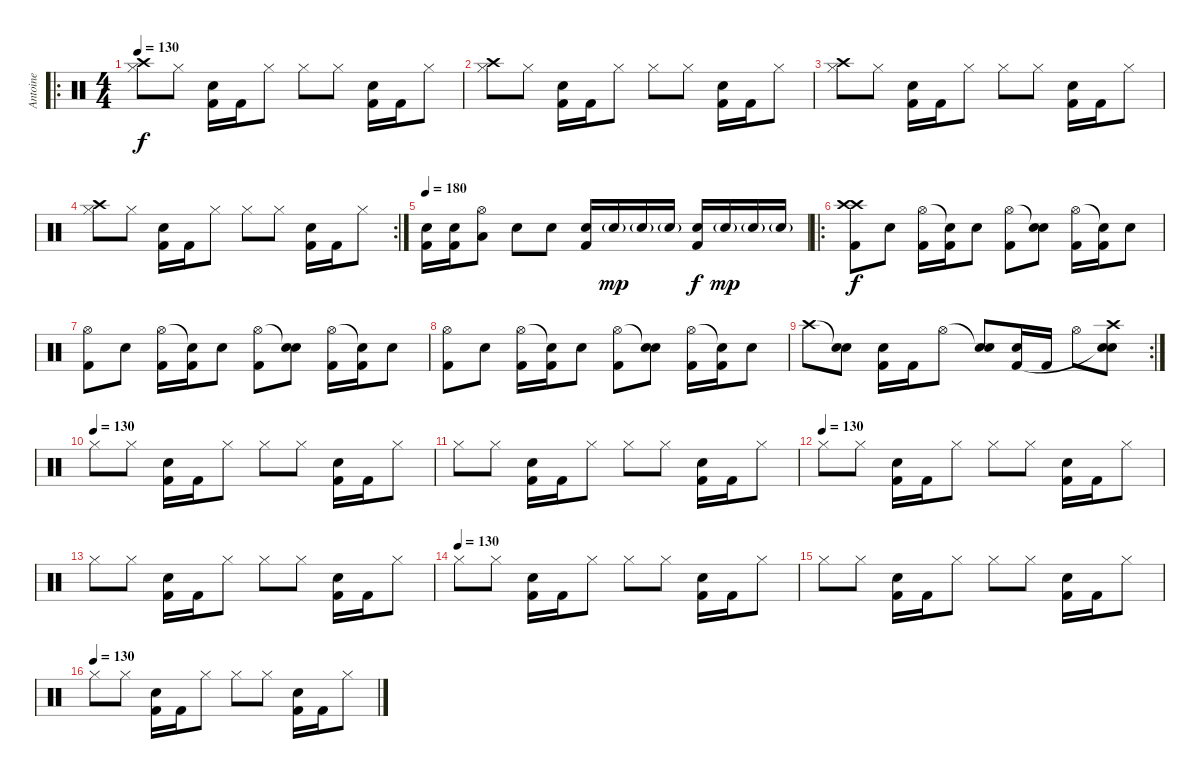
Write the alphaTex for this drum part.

\track ("Antoine" "Antoine") {instrument percussion}
\staff {score}
\articulation defaults
\ro
\ts (4 4)
\tempo 130
\clef neutral
\ks c
("Crash high (hit)" "Hi-Hat (closed)").8{dy f} "Hi-Hat (closed)".8 ("Electric Snare (hit)" "Kick (hit) 2").16 "Kick (hit) 2".16 "Hi-Hat (closed)".8 "Hi-Hat (closed)".8 "Hi-Hat (closed)".8 ("Electric Snare (hit)" "Kick (hit) 2").16 "Kick (hit) 2".16 "Hi-Hat (closed)".8 |
("Crash high (hit)" "Hi-Hat (closed)").8 "Hi-Hat (closed)".8 ("Electric Snare (hit)" "Kick (hit) 2").16 "Kick (hit) 2".16 "Hi-Hat (closed)".8 "Hi-Hat (closed)".8 "Hi-Hat (closed)".8 ("Electric Snare (hit)" "Kick (hit) 2").16 "Kick (hit) 2".16 "Hi-Hat (closed)".8 |
("Crash high (hit)" "Hi-Hat (closed)").8 "Hi-Hat (closed)".8 ("Electric Snare (hit)" "Kick (hit) 2").16 "Kick (hit) 2".16 "Hi-Hat (closed)".8 "Hi-Hat (closed)".8 "Hi-Hat (closed)".8 ("Electric Snare (hit)" "Kick (hit) 2").16 "Kick (hit) 2".16 "Hi-Hat (closed)".8 |
\rc 2
("Crash high (hit)" "Hi-Hat (closed)").8 "Hi-Hat (closed)".8 ("Electric Snare (hit)" "Kick (hit) 2").16 "Kick (hit) 2".16 "Hi-Hat (closed)".8 "Hi-Hat (closed)".8 "Hi-Hat (closed)".8 ("Electric Snare (hit)" "Kick (hit) 2").16 "Kick (hit) 2".16 "Hi-Hat (closed)".8 |
\tempo 180
("Electric Snare (hit)" "Kick (hit) 2").16 ("Electric Snare (hit)" "Kick (hit) 2").16 ("Hi-Hat (open)" "Low Tom (hit)").8 "Electric Snare (hit)".8 "Electric Snare (hit)".8 ("Electric Snare (hit)" "Kick (hit) 2").16 "Electric Snare (hit)"{g}.16{dy mp} "Electric Snare (hit)"{g}.16 "Electric Snare (hit)"{g}.16 ("Electric Snare (hit)" "Kick (hit) 2").16{dy f} "Electric Snare (hit)"{g}.16{dy mp} "Electric Snare (hit)"{g}.16 "Electric Snare (hit)"{g}.16 |
\ro
("Crash high (hit)" "Crash high (hit)" "Kick (hit) 2").8{dy f} "Electric Snare (hit)".8 ("Hi-Hat (open)" "Kick (hit) 2").16 ("Snare (hit)"{t} "Kick (hit) 2").16 "Electric Snare (hit)".8 ("Hi-Hat (open)" "Kick (hit) 2").8 ("Snare (hit)"{t} "Electric Snare (hit)").8 ("Hi-Hat (open)" "Kick (hit) 2").16 ("Snare (hit)"{t} "Kick (hit) 2").16 "Electric Snare (hit)".8 |
("Hi-Hat (open)" "Kick (hit) 2").8 "Electric Snare (hit)".8 ("Hi-Hat (open)" "Kick (hit) 2").16 ("Snare (hit)"{t} "Kick (hit) 2").16 "Electric Snare (hit)".8 ("Hi-Hat (open)" "Kick (hit) 2").8 ("Snare (hit)"{t} "Electric Snare (hit)").8 ("Hi-Hat (open)" "Kick (hit) 2").16 ("Snare (hit)"{t} "Kick (hit) 2").16 "Electric Snare (hit)".8 |
("Hi-Hat (open)" "Kick (hit) 2").8 "Electric Snare (hit)".8 ("Hi-Hat (open)" "Kick (hit) 2").16 ("Snare (hit)"{t} "Kick (hit) 2").16 "Electric Snare (hit)".8 ("Hi-Hat (open)" "Kick (hit) 2").8 ("Snare (hit)"{t} "Electric Snare (hit)").8 ("Hi-Hat (open)" "Kick (hit) 2").16 ("Snare (hit)"{t} "Kick (hit) 2").16 "Electric Snare (hit)".8 |
\rc 2 "Crash high (hit)".8
("Snare (hit)"{t} "Electric Snare (hit)").8 ("Electric Snare (hit)" "Kick (hit) 2").16 "Kick (hit) 2".16 "Hi-Hat (open)".8 ("Snare (hit)"{t} "Electric Snare (hit)").8 ("Electric Snare (hit)" "Kick (hit) 2").16 "Kick (hit) 2".16 "Hi-Hat (open)".8 ("Crash high (hit)" "Snare (hit)"{t} "Electric Snare (hit)").8 |
\tempo (130)
"Hi-Hat (closed)".8 "Hi-Hat (closed)".8 ("Electric Snare (hit)" "Kick (hit) 2").16 "Kick (hit) 2".16 "Hi-Hat (closed)".8 "Hi-Hat (closed)".8 "Hi-Hat (closed)".8 ("Electric Snare (hit)" "Kick (hit) 2").16 "Kick (hit) 2".16 "Hi-Hat (closed)".8 |
"Hi-Hat (closed)".8 "Hi-Hat (closed)".8 ("Electric Snare (hit)" "Kick (hit) 2").16 "Kick (hit) 2".16 "Hi-Hat (closed)".8 "Hi-Hat (closed)".8 "Hi-Hat (closed)".8 ("Electric Snare (hit)" "Kick (hit) 2").16 "Kick (hit) 2".16 "Hi-Hat (closed)".8 |
\tempo (130)
"Hi-Hat (closed)".8 "Hi-Hat (closed)".8 ("Electric Snare (hit)" "Kick (hit) 2").16 "Kick (hit) 2".16 "Hi-Hat (closed)".8 "Hi-Hat (closed)".8 "Hi-Hat (closed)".8 ("Electric Snare (hit)" "Kick (hit) 2").16 "Kick (hit) 2".16 "Hi-Hat (closed)".8 |
"Hi-Hat (closed)".8 "Hi-Hat (closed)".8 ("Electric Snare (hit)" "Kick (hit) 2").16 "Kick (hit) 2".16 "Hi-Hat (closed)".8 "Hi-Hat (closed)".8 "Hi-Hat (closed)".8 ("Electric Snare (hit)" "Kick (hit) 2").16 "Kick (hit) 2".16 "Hi-Hat (closed)".8 |
\tempo (130)
"Hi-Hat (closed)".8 "Hi-Hat (closed)".8 ("Electric Snare (hit)" "Kick (hit) 2").16 "Kick (hit) 2".16 "Hi-Hat (closed)".8 "Hi-Hat (closed)".8 "Hi-Hat (closed)".8 ("Electric Snare (hit)" "Kick (hit) 2").16 "Kick (hit) 2".16 "Hi-Hat (closed)".8 |
"Hi-Hat (closed)".8 "Hi-Hat (closed)".8 ("Electric Snare (hit)" "Kick (hit) 2").16 "Kick (hit) 2".16 "Hi-Hat (closed)".8 "Hi-Hat (closed)".8 "Hi-Hat (closed)".8 ("Electric Snare (hit)" "Kick (hit) 2").16 "Kick (hit) 2".16 "Hi-Hat (closed)".8 |
\tempo (130)
"Hi-Hat (closed)".8 "Hi-Hat (closed)".8 ("Electric Snare (hit)" "Kick (hit) 2").16 "Kick (hit) 2".16 "Hi-Hat (closed)".8 "Hi-Hat (closed)".8 "Hi-Hat (closed)".8 ("Electric Snare (hit)" "Kick (hit) 2").16 "Kick (hit) 2".16 "Hi-Hat (closed)".8
